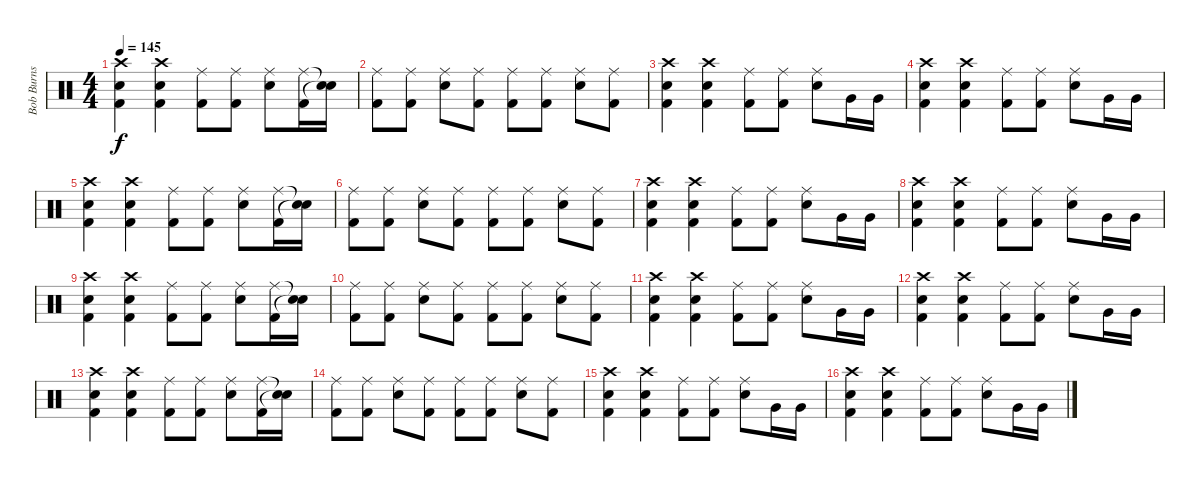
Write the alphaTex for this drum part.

\track ("Bob Burns (Drums)" "Bob Burns ") {instrument percussion}
\staff {score}
\articulation defaults
\ts (4 4)
\tempo 145
\clef neutral
\ks c
("Crash high (hit)" "Electric Snare (hit)" "Kick (hit) 2").4{dy f} ("Crash high (hit)" "Electric Snare (hit)" "Kick (hit) 2").4 ("Ride (middle)" "Kick (hit) 2").8 ("Ride (middle)" "Kick (hit) 2").8 ("Ride (middle)" "Electric Snare (hit)").8 ("Ride (middle)" "Kick (hit) 2").16 ("Snare (hit)"{t} "Snare (hit)"{t}).16 |
("Ride (middle)" "Kick (hit) 2").8 ("Ride (middle)" "Kick (hit) 2").8 ("Ride (middle)" "Electric Snare (hit)").8 ("Ride (middle)" "Kick (hit) 2").8 ("Ride (middle)" "Kick (hit) 2").8 ("Ride (middle)" "Kick (hit) 2").8 ("Ride (middle)" "Electric Snare (hit)").8 ("Ride (middle)" "Kick (hit) 2").8 |
("Crash high (hit)" "Electric Snare (hit)" "Kick (hit) 2").4 ("Crash high (hit)" "Electric Snare (hit)" "Kick (hit) 2").4 ("Ride (middle)" "Kick (hit) 2").8 ("Ride (middle)" "Kick (hit) 2").8 ("Ride (middle)" "Electric Snare (hit)").8 "Very Low Tom (hit)".16 "Very Low Tom (hit)".16 |
("Crash high (hit)" "Electric Snare (hit)" "Kick (hit) 2").4 ("Crash high (hit)" "Electric Snare (hit)" "Kick (hit) 2").4 ("Ride (middle)" "Kick (hit) 2").8 ("Ride (middle)" "Kick (hit) 2").8 ("Ride (middle)" "Electric Snare (hit)").8 "Very Low Tom (hit)".16 "Very Low Tom (hit)".16 |
("Crash high (hit)" "Electric Snare (hit)" "Kick (hit) 2").4 ("Crash high (hit)" "Electric Snare (hit)" "Kick (hit) 2").4 ("Ride (middle)" "Kick (hit) 2").8 ("Ride (middle)" "Kick (hit) 2").8 ("Ride (middle)" "Electric Snare (hit)").8 ("Ride (middle)" "Kick (hit) 2").16 ("Snare (hit)"{t} "Snare (hit)"{t}).16 |
("Ride (middle)" "Kick (hit) 2").8 ("Ride (middle)" "Kick (hit) 2").8 ("Ride (middle)" "Electric Snare (hit)").8 ("Ride (middle)" "Kick (hit) 2").8 ("Ride (middle)" "Kick (hit) 2").8 ("Ride (middle)" "Kick (hit) 2").8 ("Ride (middle)" "Electric Snare (hit)").8 ("Ride (middle)" "Kick (hit) 2").8 |
("Crash high (hit)" "Electric Snare (hit)" "Kick (hit) 2").4 ("Crash high (hit)" "Electric Snare (hit)" "Kick (hit) 2").4 ("Ride (middle)" "Kick (hit) 2").8 ("Ride (middle)" "Kick (hit) 2").8 ("Ride (middle)" "Electric Snare (hit)").8 "Very Low Tom (hit)".16 "Very Low Tom (hit)".16 |
("Crash high (hit)" "Electric Snare (hit)" "Kick (hit) 2").4 ("Crash high (hit)" "Electric Snare (hit)" "Kick (hit) 2").4 ("Ride (middle)" "Kick (hit) 2").8 ("Ride (middle)" "Kick (hit) 2").8 ("Ride (middle)" "Electric Snare (hit)").8 "Very Low Tom (hit)".16 "Very Low Tom (hit)".16 |
("Crash high (hit)" "Electric Snare (hit)" "Kick (hit) 2").4 ("Crash high (hit)" "Electric Snare (hit)" "Kick (hit) 2").4 ("Ride (middle)" "Kick (hit) 2").8 ("Ride (middle)" "Kick (hit) 2").8 ("Ride (middle)" "Electric Snare (hit)").8 ("Ride (middle)" "Kick (hit) 2").16 ("Snare (hit)"{t} "Snare (hit)"{t}).16 |
("Ride (middle)" "Kick (hit) 2").8 ("Ride (middle)" "Kick (hit) 2").8 ("Ride (middle)" "Electric Snare (hit)").8 ("Ride (middle)" "Kick (hit) 2").8 ("Ride (middle)" "Kick (hit) 2").8 ("Ride (middle)" "Kick (hit) 2").8 ("Ride (middle)" "Electric Snare (hit)").8 ("Ride (middle)" "Kick (hit) 2").8 |
("Crash high (hit)" "Electric Snare (hit)" "Kick (hit) 2").4 ("Crash high (hit)" "Electric Snare (hit)" "Kick (hit) 2").4 ("Ride (middle)" "Kick (hit) 2").8 ("Ride (middle)" "Kick (hit) 2").8 ("Ride (middle)" "Electric Snare (hit)").8 "Very Low Tom (hit)".16 "Very Low Tom (hit)".16 |
("Crash high (hit)" "Electric Snare (hit)" "Kick (hit) 2").4 ("Crash high (hit)" "Electric Snare (hit)" "Kick (hit) 2").4 ("Ride (middle)" "Kick (hit) 2").8 ("Ride (middle)" "Kick (hit) 2").8 ("Ride (middle)" "Electric Snare (hit)").8 "Very Low Tom (hit)".16 "Very Low Tom (hit)".16 |
("Crash high (hit)" "Electric Snare (hit)" "Kick (hit) 2").4 ("Crash high (hit)" "Electric Snare (hit)" "Kick (hit) 2").4 ("Ride (middle)" "Kick (hit) 2").8 ("Ride (middle)" "Kick (hit) 2").8 ("Ride (middle)" "Electric Snare (hit)").8 ("Ride (middle)" "Kick (hit) 2").16 ("Snare (hit)"{t} "Snare (hit)"{t}).16 |
("Ride (middle)" "Kick (hit) 2").8 ("Ride (middle)" "Kick (hit) 2").8 ("Ride (middle)" "Electric Snare (hit)").8 ("Ride (middle)" "Kick (hit) 2").8 ("Ride (middle)" "Kick (hit) 2").8 ("Ride (middle)" "Kick (hit) 2").8 ("Ride (middle)" "Electric Snare (hit)").8 ("Ride (middle)" "Kick (hit) 2").8 |
("Crash high (hit)" "Electric Snare (hit)" "Kick (hit) 2").4 ("Crash high (hit)" "Electric Snare (hit)" "Kick (hit) 2").4 ("Ride (middle)" "Kick (hit) 2").8 ("Ride (middle)" "Kick (hit) 2").8 ("Ride (middle)" "Electric Snare (hit)").8 "Very Low Tom (hit)".16 "Very Low Tom (hit)".16 |
("Crash high (hit)" "Electric Snare (hit)" "Kick (hit) 2").4 ("Crash high (hit)" "Electric Snare (hit)" "Kick (hit) 2").4 ("Ride (middle)" "Kick (hit) 2").8 ("Ride (middle)" "Kick (hit) 2").8 ("Ride (middle)" "Electric Snare (hit)").8 "Very Low Tom (hit)".16 "Very Low Tom (hit)".16
